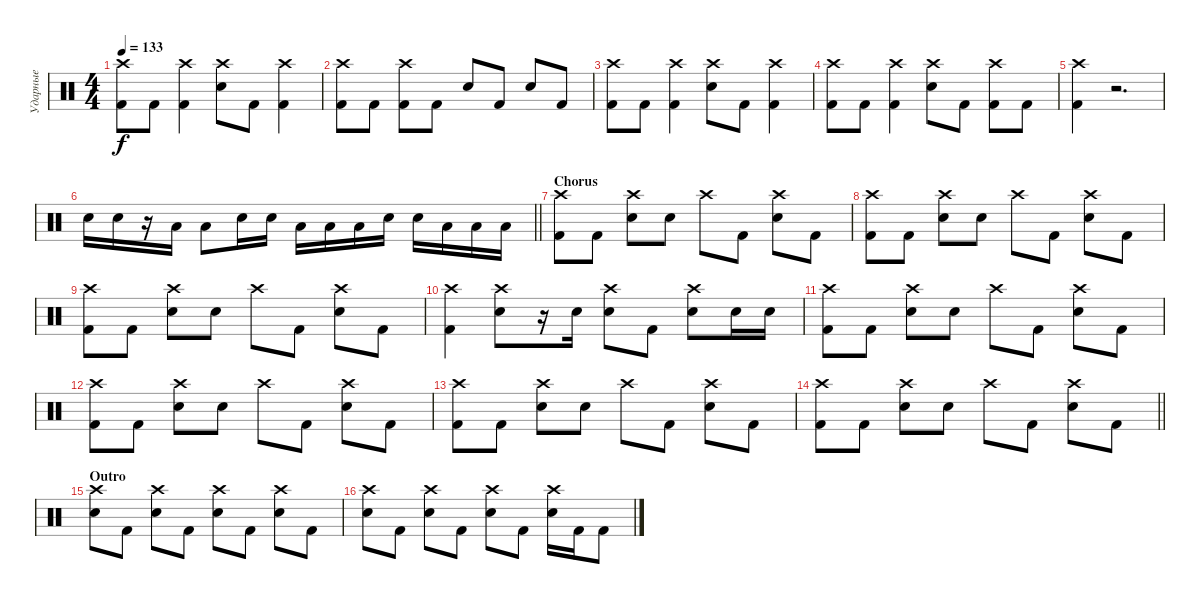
\track ("Ударные" "Ударные") {instrument percussion}
\staff {score}
\articulation defaults
\ts (4 4)
\tempo 133
\clef neutral
\ks c
("Crash high (hit)" "Kick (hit) 2").8{dy f} "Kick (hit) 2".8 ("Crash high (hit)" "Kick (hit) 2").4 ("Crash high (hit)" "Electric Snare (hit)").8 "Kick (hit) 2".8 ("Crash high (hit)" "Kick (hit) 2").4 |
("Crash high (hit)" "Kick (hit) 2").8 "Kick (hit) 2".8 ("Crash high (hit)" "Kick (hit) 2").8 "Kick (hit) 2".8 "Electric Snare (hit)".8 "Kick (hit) 2".8 "Electric Snare (hit)".8 "Kick (hit) 2".8 |
("Crash high (hit)" "Kick (hit) 2").8 "Kick (hit) 2".8 ("Crash high (hit)" "Kick (hit) 2").4 ("Crash high (hit)" "Electric Snare (hit)").8 "Kick (hit) 2".8 ("Crash high (hit)" "Kick (hit) 2").4 |
("Crash high (hit)" "Kick (hit) 2").8 "Kick (hit) 2".8 ("Crash high (hit)" "Kick (hit) 2").4 ("Crash high (hit)" "Electric Snare (hit)").8 "Kick (hit) 2".8 ("Crash high (hit)" "Kick (hit) 2").8 "Kick (hit) 2".8 |
("Crash high (hit)" "Kick (hit) 2").4 r.2{d} |
\barLineRight lightlight "Electric Snare (hit)".16 "Electric Snare (hit)".16
r.16 "Low Tom (hit)".16 "Low Tom (hit)".8 "Electric Snare (hit)".16 "Electric Snare (hit)".16 "Low Tom (hit)".16 "Low Tom (hit)".16 "Low Tom (hit)".16 "Electric Snare (hit)".16 "Electric Snare (hit)".16 "Low Tom (hit)".16 "Low Tom (hit)".16 "Low Tom (hit)".16 |
\section ("" "Chorus")
("Crash high (hit)" "Kick (hit) 2").8 "Kick (hit) 2".8 ("Crash high (hit)" "Electric Snare (hit)").8 "Electric Snare (hit)".8 "Crash high (hit)".8 "Kick (hit) 2".8 ("Crash high (hit)" "Electric Snare (hit)").8 "Kick (hit) 2".8 |
("Crash high (hit)" "Kick (hit) 2").8 "Kick (hit) 2".8 ("Crash high (hit)" "Electric Snare (hit)").8 "Electric Snare (hit)".8 "Crash high (hit)".8 "Kick (hit) 2".8 ("Crash high (hit)" "Electric Snare (hit)").8 "Kick (hit) 2".8 |
("Crash high (hit)" "Kick (hit) 2").8 "Kick (hit) 2".8 ("Crash high (hit)" "Electric Snare (hit)").8 "Electric Snare (hit)".8 "Crash high (hit)".8 "Kick (hit) 2".8 ("Crash high (hit)" "Electric Snare (hit)").8 "Kick (hit) 2".8 |
("Crash high (hit)" "Kick (hit) 2").4 ("Crash high (hit)" "Electric Snare (hit)").8 r.16 "Electric Snare (hit)".16 ("Crash high (hit)" "Electric Snare (hit)").8 "Kick (hit) 2".8 ("Crash high (hit)" "Electric Snare (hit)").8 "Electric Snare (hit)".16 "Electric Snare (hit)".16 |
("Crash high (hit)" "Kick (hit) 2").8 "Kick (hit) 2".8 ("Crash high (hit)" "Electric Snare (hit)").8 "Electric Snare (hit)".8 "Crash high (hit)".8 "Kick (hit) 2".8 ("Crash high (hit)" "Electric Snare (hit)").8 "Kick (hit) 2".8 |
("Crash high (hit)" "Kick (hit) 2").8 "Kick (hit) 2".8 ("Crash high (hit)" "Electric Snare (hit)").8 "Electric Snare (hit)".8 "Crash high (hit)".8 "Kick (hit) 2".8 ("Crash high (hit)" "Electric Snare (hit)").8 "Kick (hit) 2".8 |
("Crash high (hit)" "Kick (hit) 2").8 "Kick (hit) 2".8 ("Crash high (hit)" "Electric Snare (hit)").8 "Electric Snare (hit)".8 "Crash high (hit)".8 "Kick (hit) 2".8 ("Crash high (hit)" "Electric Snare (hit)").8 "Kick (hit) 2".8 |
\barLineRight lightlight
("Crash high (hit)" "Kick (hit) 2").8 "Kick (hit) 2".8 ("Crash high (hit)" "Electric Snare (hit)").8 "Electric Snare (hit)".8 "Crash high (hit)".8 "Kick (hit) 2".8 ("Crash high (hit)" "Electric Snare (hit)").8 "Kick (hit) 2".8 |
\section ("" "Outro")
("Crash high (hit)" "Electric Snare (hit)").8 "Kick (hit) 2".8 ("Crash high (hit)" "Electric Snare (hit)").8 "Kick (hit) 2".8 ("Crash high (hit)" "Electric Snare (hit)").8 "Kick (hit) 2".8 ("Crash high (hit)" "Electric Snare (hit)").8 "Kick (hit) 2".8 |
("Crash high (hit)" "Electric Snare (hit)").8 "Kick (hit) 2".8 ("Crash high (hit)" "Electric Snare (hit)").8 "Kick (hit) 2".8 ("Crash high (hit)" "Electric Snare (hit)").8 "Kick (hit) 2".8 ("Crash high (hit)" "Electric Snare (hit)").16 "Kick (hit) 2".16 "Kick (hit) 2".8
